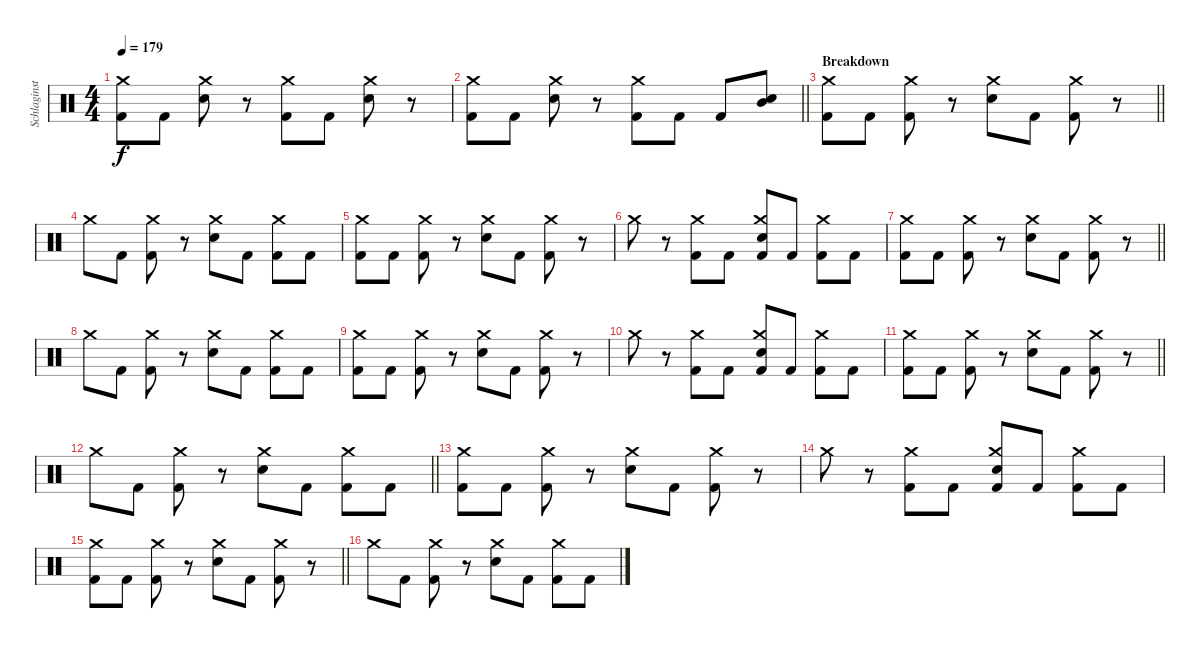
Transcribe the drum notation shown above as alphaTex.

\track ("Schlaginstrumente - Auswahl" "Schlaginst") {instrument percussion}
\staff {score}
\articulation defaults
\ts (4 4)
\tempo 179
\clef neutral
\ks c
("Kick (hit) 2" "Crash medium (hit)").8{dy f} "Kick (hit) 2".8 ("Crash medium (hit)" "Electric Snare (hit)").8 r.8 ("Kick (hit) 2" "Crash medium (hit)").8 "Kick (hit) 2".8 ("Crash medium (hit)" "Electric Snare (hit)").8 r.8 |
\barLineRight lightlight
("Kick (hit) 2" "Crash medium (hit)").8 "Kick (hit) 2".8 ("Crash medium (hit)" "Electric Snare (hit)").8 r.8 ("Kick (hit) 2" "Crash medium (hit)").8 "Kick (hit) 2".8 "Kick (hit) 2".8 ("Mid Tom (hit)" "Electric Snare (hit)").8 |
\section ("" "Breakdown")
\barLineRight lightlight
("Crash medium (hit)" "Kick (hit) 2").8 "Kick (hit) 2".8 ("Crash medium (hit)" "Kick (hit) 2").8 r.8 ("Crash medium (hit)" "Electric Snare (hit)").8 "Kick (hit) 2".8 ("Crash medium (hit)" "Kick (hit) 2").8 r.8 |
"Crash medium (hit)".8 "Kick (hit) 2".8 ("Crash medium (hit)" "Kick (hit) 2").8 r.8 ("Crash medium (hit)" "Electric Snare (hit)").8 "Kick (hit) 2".8 ("Crash medium (hit)" "Kick (hit) 2").8 "Kick (hit) 2".8 |
("Crash medium (hit)" "Kick (hit) 2").8 "Kick (hit) 2".8 ("Crash medium (hit)" "Kick (hit) 2").8 r.8 ("Crash medium (hit)" "Electric Snare (hit)").8 "Kick (hit) 2".8 ("Crash medium (hit)" "Kick (hit) 2").8 r.8 |
"Crash medium (hit)".8 r.8 ("Crash medium (hit)" "Kick (hit) 2").8 "Kick (hit) 2".8 ("Crash medium (hit)" "Electric Snare (hit)" "Kick (hit) 2").8 "Kick (hit) 2".8 ("Crash medium (hit)" "Kick (hit) 2").8 "Kick (hit) 2".8 |
\barLineRight lightlight
("Crash medium (hit)" "Kick (hit) 2").8 "Kick (hit) 2".8 ("Crash medium (hit)" "Kick (hit) 2").8 r.8 ("Crash medium (hit)" "Electric Snare (hit)").8 "Kick (hit) 2".8 ("Crash medium (hit)" "Kick (hit) 2").8 r.8 |
"Crash medium (hit)".8 "Kick (hit) 2".8 ("Crash medium (hit)" "Kick (hit) 2").8 r.8 ("Crash medium (hit)" "Electric Snare (hit)").8 "Kick (hit) 2".8 ("Crash medium (hit)" "Kick (hit) 2").8 "Kick (hit) 2".8 |
("Crash medium (hit)" "Kick (hit) 2").8 "Kick (hit) 2".8 ("Crash medium (hit)" "Kick (hit) 2").8 r.8 ("Crash medium (hit)" "Electric Snare (hit)").8 "Kick (hit) 2".8 ("Crash medium (hit)" "Kick (hit) 2").8 r.8 |
"Crash medium (hit)".8 r.8 ("Crash medium (hit)" "Kick (hit) 2").8 "Kick (hit) 2".8 ("Crash medium (hit)" "Electric Snare (hit)" "Kick (hit) 2").8 "Kick (hit) 2".8 ("Crash medium (hit)" "Kick (hit) 2").8 "Kick (hit) 2".8 |
\barLineRight lightlight
("Crash medium (hit)" "Kick (hit) 2").8 "Kick (hit) 2".8 ("Crash medium (hit)" "Kick (hit) 2").8 r.8 ("Crash medium (hit)" "Electric Snare (hit)").8 "Kick (hit) 2".8 ("Crash medium (hit)" "Kick (hit) 2").8 r.8 |
\barLineRight lightlight "Crash medium (hit)".8 "Kick (hit) 2".8
("Crash medium (hit)" "Kick (hit) 2").8 r.8 ("Crash medium (hit)" "Electric Snare (hit)").8 "Kick (hit) 2".8 ("Crash medium (hit)" "Kick (hit) 2").8 "Kick (hit) 2".8 |
\section ("" "")
("Crash medium (hit)" "Kick (hit) 2").8 "Kick (hit) 2".8 ("Crash medium (hit)" "Kick (hit) 2").8 r.8 ("Crash medium (hit)" "Electric Snare (hit)").8 "Kick (hit) 2".8 ("Crash medium (hit)" "Kick (hit) 2").8 r.8 |
"Crash medium (hit)".8 r.8 ("Crash medium (hit)" "Kick (hit) 2").8 "Kick (hit) 2".8 ("Crash medium (hit)" "Electric Snare (hit)" "Kick (hit) 2").8 "Kick (hit) 2".8 ("Crash medium (hit)" "Kick (hit) 2").8 "Kick (hit) 2".8 |
\barLineRight lightlight
("Crash medium (hit)" "Kick (hit) 2").8 "Kick (hit) 2".8 ("Crash medium (hit)" "Kick (hit) 2").8 r.8 ("Crash medium (hit)" "Electric Snare (hit)").8 "Kick (hit) 2".8 ("Crash medium (hit)" "Kick (hit) 2").8 r.8 |
"Crash medium (hit)".8 "Kick (hit) 2".8 ("Crash medium (hit)" "Kick (hit) 2").8 r.8 ("Crash medium (hit)" "Electric Snare (hit)").8 "Kick (hit) 2".8 ("Crash medium (hit)" "Kick (hit) 2").8 "Kick (hit) 2".8
